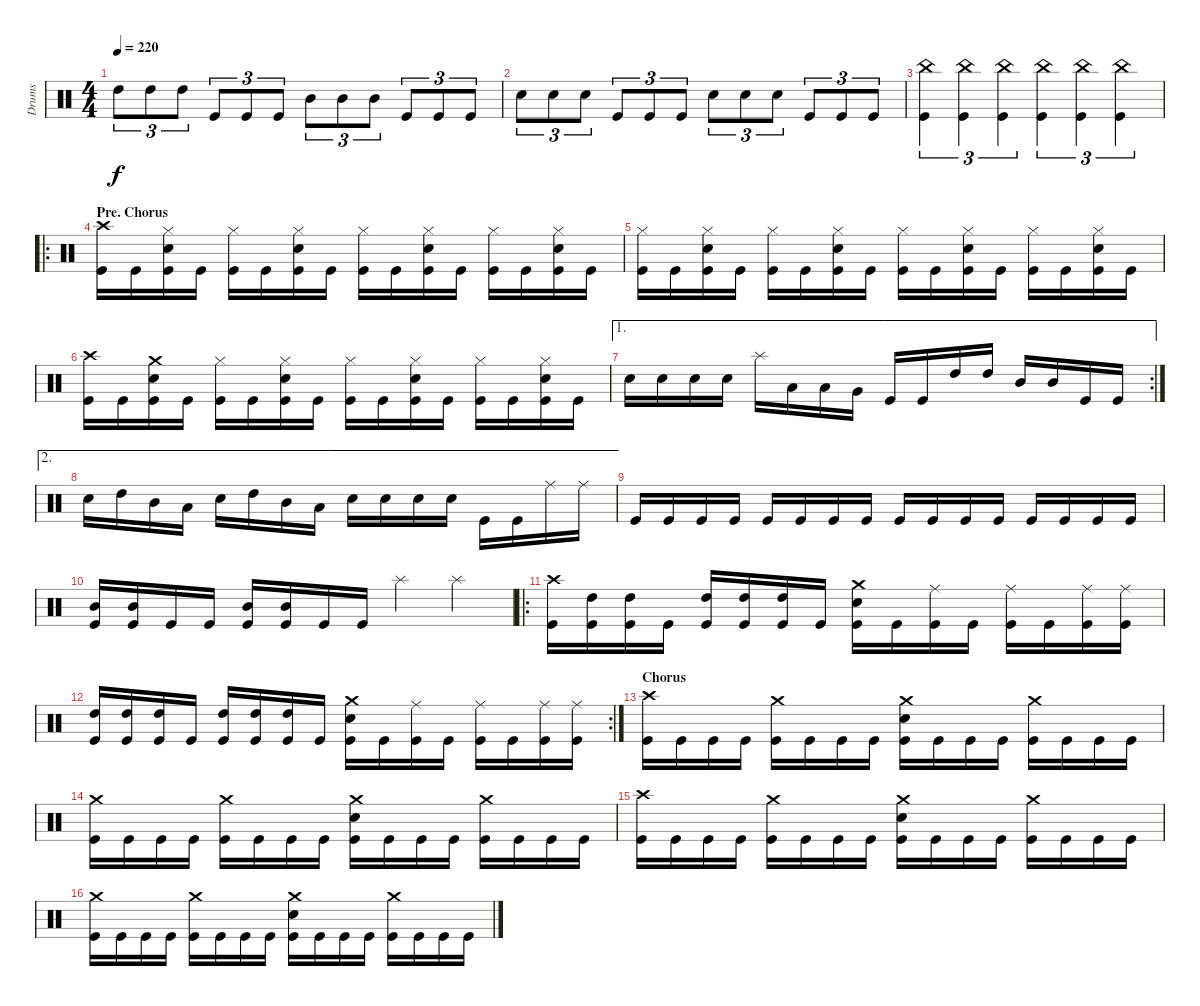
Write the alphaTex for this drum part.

\track ("Drums" "Drums") {instrument percussion}
\staff {score}
\articulation defaults
\ts (4 4)
\tempo 220
\clef neutral
\ks c "High Tom (hit)".8{tu (3 2) dy f} "High Tom (hit)".8{tu (3 2)} "High Tom (hit)".8{tu (3 2)} "Kick (hit)".8{tu (3 2)} "Kick (hit)".8{tu (3 2)} "Kick (hit)".8{tu (3 2)} "Mid Tom (hit)".8{tu (3 2)} "Mid Tom (hit)".8{tu (3 2)} "Mid Tom (hit)".8{tu (3 2)} "Kick (hit)".8{tu (3 2)} "Kick (hit)".8{tu (3 2)} "Kick (hit)".8{tu (3 2)}
|
"Snare (hit) 2".8{tu (3 2)} "Snare (hit) 2".8{tu (3 2)} "Snare (hit) 2".8{tu (3 2)} "Kick (hit)".8{tu (3 2)} "Kick (hit)".8{tu (3 2)} "Kick (hit)".8{tu (3 2)} "Snare (hit) 2".8{tu (3 2)} "Snare (hit) 2".8{tu (3 2)} "Snare (hit) 2".8{tu (3 2)} "Kick (hit)".8{tu (3 2)} "Kick (hit)".8{tu (3 2)} "Kick (hit)".8{tu (3 2)} |
("China (hit)" "Kick (hit)").4{tu (3 2)} ("China (hit)" "Kick (hit)").4{tu (3 2)} ("China (hit)" "Kick (hit)").4{tu (3 2)} ("China (hit)" "Kick (hit)").4{tu (3 2)} ("China (hit)" "Kick (hit)").4{tu (3 2)} ("China (hit)" "Kick (hit)").4{tu (3 2)} |
\ro
\section ("" "Pre. Chorus")
("Crash high (hit)" "Kick (hit)").16 "Kick (hit)".16 ("Hi-Hat (closed)" "Snare (hit) 2" "Kick (hit)").16 "Kick (hit)".16 ("Hi-Hat (closed)" "Kick (hit)").16 "Kick (hit)".16 ("Hi-Hat (closed)" "Snare (hit) 2" "Kick (hit)").16 "Kick (hit)".16 ("Hi-Hat (closed)" "Kick (hit)").16 "Kick (hit)".16 ("Hi-Hat (closed)" "Snare (hit) 2" "Kick (hit)").16 "Kick (hit)".16 ("Hi-Hat (closed)" "Kick (hit)").16 "Kick (hit)".16 ("Hi-Hat (closed)" "Snare (hit) 2" "Kick (hit)").16 "Kick (hit)".16 |
("Hi-Hat (closed)" "Kick (hit)").16 "Kick (hit)".16 ("Hi-Hat (closed)" "Snare (hit) 2" "Kick (hit)").16 "Kick (hit)".16 ("Hi-Hat (closed)" "Kick (hit)").16 "Kick (hit)".16 ("Hi-Hat (closed)" "Snare (hit) 2" "Kick (hit)").16 "Kick (hit)".16 ("Hi-Hat (closed)" "Kick (hit)").16 "Kick (hit)".16 ("Hi-Hat (closed)" "Snare (hit) 2" "Kick (hit)").16 "Kick (hit)".16 ("Hi-Hat (closed)" "Kick (hit)").16 "Kick (hit)".16 ("Hi-Hat (closed)" "Snare (hit) 2" "Kick (hit)").16 "Kick (hit)".16 |
("Crash high (hit)" "Kick (hit)").16 "Kick (hit)".16 ("Crash medium (hit)" "Snare (hit) 2" "Kick (hit)").16 "Kick (hit)".16 ("Hi-Hat (closed)" "Kick (hit)").16 "Kick (hit)".16 ("Hi-Hat (closed)" "Snare (hit) 2" "Kick (hit)").16 "Kick (hit)".16 ("Hi-Hat (closed)" "Kick (hit)").16 "Kick (hit)".16 ("Hi-Hat (closed)" "Snare (hit) 2" "Kick (hit)").16 "Kick (hit)".16 ("Hi-Hat (closed)" "Kick (hit)").16 "Kick (hit)".16 ("Hi-Hat (closed)" "Snare (hit) 2" "Kick (hit)").16 "Kick (hit)".16 |
\ae 1
\rc 2 "Snare (hit) 2".16 "Snare (hit) 2".16 "Snare (hit) 2".16 "Snare (hit) 2".16 "Splash (hit)".16 "Low Tom (hit)".16 "Low Tom (hit)".16 "Very Low Tom (hit)".16 "Kick (hit)".16 "Kick (hit)".16 "High Tom (hit)".16 "High Tom (hit)".16 "Mid Tom (hit)".16 "Mid Tom (hit)".16 "Kick (hit)".16 "Kick (hit)".16
|
\ae 2 "Snare (hit) 2".16 "High Tom (hit)".16 "Mid Tom (hit)".16 "Low Tom (hit)".16 "Snare (hit) 2".16 "High Tom (hit)".16 "Mid Tom (hit)".16 "Low Tom (hit)".16 "Snare (hit) 2".16 "Snare (hit) 2".16 "Snare (hit) 2".16 "Snare (hit) 2".16 "Kick (hit)".16 "Kick (hit)".16 "Ride (middle)".16 "Ride (middle)".16
|
"Kick (hit)".16 "Kick (hit)".16 "Kick (hit)".16 "Kick (hit)".16 "Kick (hit)".16 "Kick (hit)".16 "Kick (hit)".16 "Kick (hit)".16 "Kick (hit)".16 "Kick (hit)".16 "Kick (hit)".16 "Kick (hit)".16 "Kick (hit)".16 "Kick (hit)".16 "Kick (hit)".16 "Kick (hit)".16 |
("Mid Tom (hit)" "Kick (hit)").16 ("Mid Tom (hit)" "Kick (hit)").16 "Kick (hit)".16 "Kick (hit)".16 ("Mid Tom (hit)" "Kick (hit)").16 ("Mid Tom (hit)" "Kick (hit)").16 "Kick (hit)".16 "Kick (hit)".16 "Splash (hit)".4 "Splash (hit)".4 |
\ro
("Crash high (hit)" "Kick (hit)").16 ("High Tom (hit)" "Kick (hit)").16 ("High Tom (hit)" "Kick (hit)").16 "Kick (hit)".16 ("High Tom (hit)" "Kick (hit)").16 ("High Tom (hit)" "Kick (hit)").16 ("High Tom (hit)" "Kick (hit)").16 "Kick (hit)".16 ("Crash medium (hit)" "Snare (hit) 2" "Kick (hit)").16 "Kick (hit)".16 ("Ride (middle)" "Kick (hit)").16 "Kick (hit)".16 ("Ride (middle)" "Kick (hit)").16 "Kick (hit)".16 ("Ride (middle)" "Kick (hit)").16 ("Ride (middle)" "Kick (hit)").16 |
\rc 2
("High Tom (hit)" "Kick (hit)").16 ("High Tom (hit)" "Kick (hit)").16 ("High Tom (hit)" "Kick (hit)").16 "Kick (hit)".16 ("High Tom (hit)" "Kick (hit)").16 ("High Tom (hit)" "Kick (hit)").16 ("High Tom (hit)" "Kick (hit)").16 "Kick (hit)".16 ("Crash medium (hit)" "Snare (hit) 2" "Kick (hit)").16 "Kick (hit)".16 ("Ride (middle)" "Kick (hit)").16 "Kick (hit)".16 ("Ride (middle)" "Kick (hit)").16 "Kick (hit)".16 ("Ride (middle)" "Kick (hit)").16 ("Ride (middle)" "Kick (hit)").16 |
\section ("" "Chorus")
("Crash high (hit)" "Kick (hit)").16 "Kick (hit)".16 "Kick (hit)".16 "Kick (hit)".16 ("Crash medium (hit)" "Kick (hit)").16 "Kick (hit)".16 "Kick (hit)".16 "Kick (hit)".16 ("Crash medium (hit)" "Snare (hit) 2" "Kick (hit)").16 "Kick (hit)".16 "Kick (hit)".16 "Kick (hit)".16 ("Crash medium (hit)" "Kick (hit)").16 "Kick (hit)".16 "Kick (hit)".16 "Kick (hit)".16 |
("Crash medium (hit)" "Kick (hit)").16 "Kick (hit)".16 "Kick (hit)".16 "Kick (hit)".16 ("Crash medium (hit)" "Kick (hit)").16 "Kick (hit)".16 "Kick (hit)".16 "Kick (hit)".16 ("Crash medium (hit)" "Snare (hit) 2" "Kick (hit)").16 "Kick (hit)".16 "Kick (hit)".16 "Kick (hit)".16 ("Crash medium (hit)" "Kick (hit)").16 "Kick (hit)".16 "Kick (hit)".16 "Kick (hit)".16 |
("Crash high (hit)" "Kick (hit)").16 "Kick (hit)".16 "Kick (hit)".16 "Kick (hit)".16 ("Crash medium (hit)" "Kick (hit)").16 "Kick (hit)".16 "Kick (hit)".16 "Kick (hit)".16 ("Crash medium (hit)" "Snare (hit) 2" "Kick (hit)").16 "Kick (hit)".16 "Kick (hit)".16 "Kick (hit)".16 ("Crash medium (hit)" "Kick (hit)").16 "Kick (hit)".16 "Kick (hit)".16 "Kick (hit)".16 |
("Crash medium (hit)" "Kick (hit)").16 "Kick (hit)".16 "Kick (hit)".16 "Kick (hit)".16 ("Crash medium (hit)" "Kick (hit)").16 "Kick (hit)".16 "Kick (hit)".16 "Kick (hit)".16 ("Crash medium (hit)" "Snare (hit) 2" "Kick (hit)").16 "Kick (hit)".16 "Kick (hit)".16 "Kick (hit)".16 ("Crash medium (hit)" "Kick (hit)").16 "Kick (hit)".16 "Kick (hit)".16 "Kick (hit)".16
